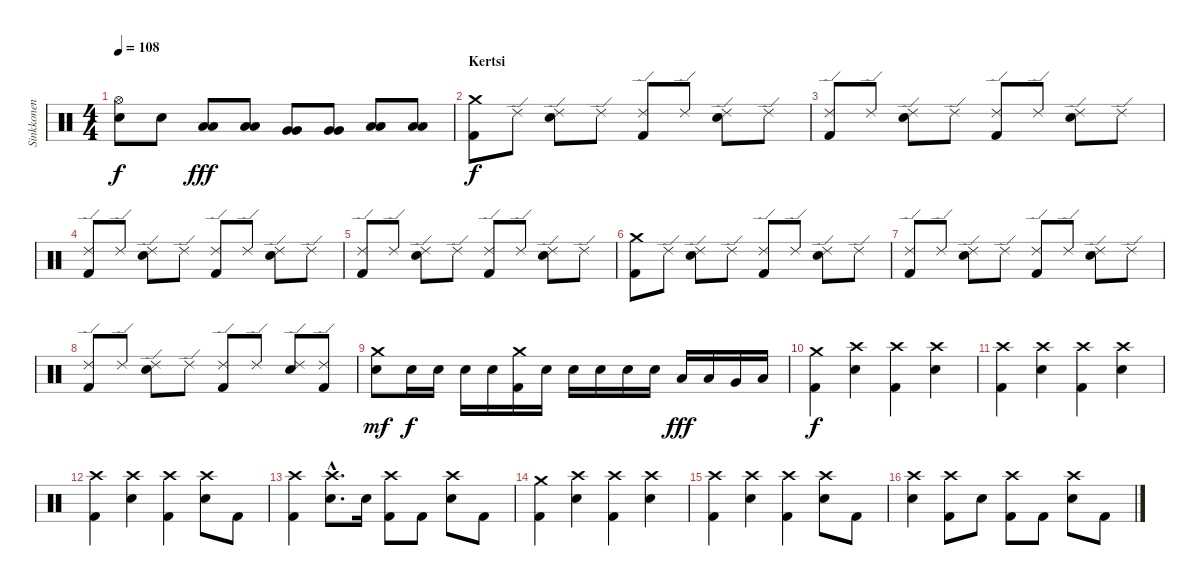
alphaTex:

\track ("Sinkkonen" "Sinkkonen") {instrument percussion}
\staff {score}
\articulation defaults
\ts (4 4)
\tempo 108
\clef neutral
\ks c
("Hi-Hat (open)" "Snare (hit) 2").8{dy f} "Snare (hit) 2".8 ("Low Tom (hit)" "Low Tom (hit)").8{dy fff} ("Low Tom (hit)" "Low Tom (hit)").8 ("Very Low Tom (hit)" "Very Low Tom (hit)").8 ("Very Low Tom (hit)" "Very Low Tom (hit)").8 ("Low Floor Tom (hit)" "Low Floor Tom (hit)").8 ("Low Floor Tom (hit)" "Low Floor Tom (hit)").8 |
\section ("" "Kertsi")
("Kick (hit) 2" "Crash medium (hit)").8{dy f} "Ride (edge) 2".8 ("Ride (edge) 2" "Snare (hit) 2").8 "Ride (edge) 2".8 ("Kick (hit) 2" "Ride (edge) 2").8 "Ride (edge) 2".8 ("Ride (edge) 2" "Snare (hit) 2").8 "Ride (edge) 2".8 |
("Kick (hit) 2" "Ride (edge) 2").8 "Ride (edge) 2".8 ("Ride (edge) 2" "Snare (hit) 2").8 "Ride (edge) 2".8 ("Kick (hit) 2" "Ride (edge) 2").8 "Ride (edge) 2".8 ("Ride (edge) 2" "Snare (hit) 2").8 "Ride (edge) 2".8 |
("Kick (hit) 2" "Ride (edge) 2").8 "Ride (edge) 2".8 ("Ride (edge) 2" "Snare (hit) 2").8 "Ride (edge) 2".8 ("Kick (hit) 2" "Ride (edge) 2").8 "Ride (edge) 2".8 ("Ride (edge) 2" "Snare (hit) 2").8 "Ride (edge) 2".8 |
("Kick (hit) 2" "Ride (edge) 2").8 "Ride (edge) 2".8 ("Ride (edge) 2" "Snare (hit) 2").8 "Ride (edge) 2".8 ("Kick (hit) 2" "Ride (edge) 2").8 "Ride (edge) 2".8 ("Ride (edge) 2" "Snare (hit) 2").8 "Ride (edge) 2".8 |
("Kick (hit) 2" "Crash medium (hit)").8 "Ride (edge) 2".8 ("Ride (edge) 2" "Snare (hit) 2").8 "Ride (edge) 2".8 ("Kick (hit) 2" "Ride (edge) 2").8 "Ride (edge) 2".8 ("Ride (edge) 2" "Snare (hit) 2").8 "Ride (edge) 2".8 |
("Kick (hit) 2" "Ride (edge) 2").8 "Ride (edge) 2".8 ("Ride (edge) 2" "Snare (hit) 2").8 "Ride (edge) 2".8 ("Kick (hit) 2" "Ride (edge) 2").8 "Ride (edge) 2".8 ("Ride (edge) 2" "Snare (hit) 2").8 "Ride (edge) 2".8 |
("Kick (hit) 2" "Ride (edge) 2").8 "Ride (edge) 2".8 ("Ride (edge) 2" "Snare (hit) 2").8 "Ride (edge) 2".8 ("Kick (hit) 2" "Ride (edge) 2").8 "Ride (edge) 2".8 ("Ride (edge) 2" "Snare (hit) 2").8 ("Kick (hit) 2" "Ride (edge) 2").8 |
("Crash medium (hit)" "Snare (hit) 2").8{dy mf} "Snare (hit) 2".16{dy f} "Snare (hit) 2".16 "Snare (hit) 2".16 "Snare (hit) 2".16 ("Kick (hit) 2" "Crash medium (hit)").16 "Snare (hit) 2".16 "Snare (hit) 2".16 "Snare (hit) 2".16 "Snare (hit) 2".16 "Snare (hit) 2".16 "Low Tom (hit)".16{dy fff} "Low Tom (hit)".16 "Very Low Tom (hit)".16 "Low Floor Tom (hit)".16 |
("Kick (hit) 2" "Crash medium (hit)").4{dy f} ("Crash high (hit)" "Snare (hit) 2").4 ("Kick (hit) 2" "Crash high (hit)").4 ("Crash high (hit)" "Snare (hit) 2").4 |
("Kick (hit) 2" "Crash high (hit)").4 ("Crash high (hit)" "Snare (hit) 2").4 ("Kick (hit) 2" "Crash high (hit)").4 ("Crash high (hit)" "Snare (hit) 2").4 |
("Kick (hit) 2" "Crash high (hit)").4 ("Crash high (hit)" "Snare (hit) 2").4 ("Kick (hit) 2" "Crash high (hit)").4 ("Crash high (hit)" "Snare (hit) 2").8 "Kick (hit) 2".8 |
("Kick (hit) 2" "Crash high (hit)").4 ("Crash high (hit)"{hac} "Snare (hit) 2"{hac}).8{d} "Snare (hit) 2".16 ("Kick (hit) 2" "Crash high (hit)").8 "Kick (hit) 2".8 ("Crash high (hit)" "Snare (hit) 2").8 "Kick (hit) 2".8 |
("Kick (hit) 2" "Crash medium (hit)").4 ("Crash high (hit)" "Snare (hit) 2").4 ("Kick (hit) 2" "Crash high (hit)").4 ("Crash high (hit)" "Snare (hit) 2").4 |
("Kick (hit) 2" "Crash high (hit)").4 ("Crash high (hit)" "Snare (hit) 2").4 ("Kick (hit) 2" "Crash high (hit)").4 ("Crash high (hit)" "Snare (hit) 2").8 "Kick (hit) 2".8 |
("Crash high (hit)" "Snare (hit) 2").4 ("Kick (hit) 2" "Crash high (hit)").8 "Snare (hit) 2".8 ("Kick (hit) 2" "Crash high (hit)").8 "Kick (hit) 2".8 ("Crash high (hit)" "Snare (hit) 2").8 "Kick (hit) 2".8
